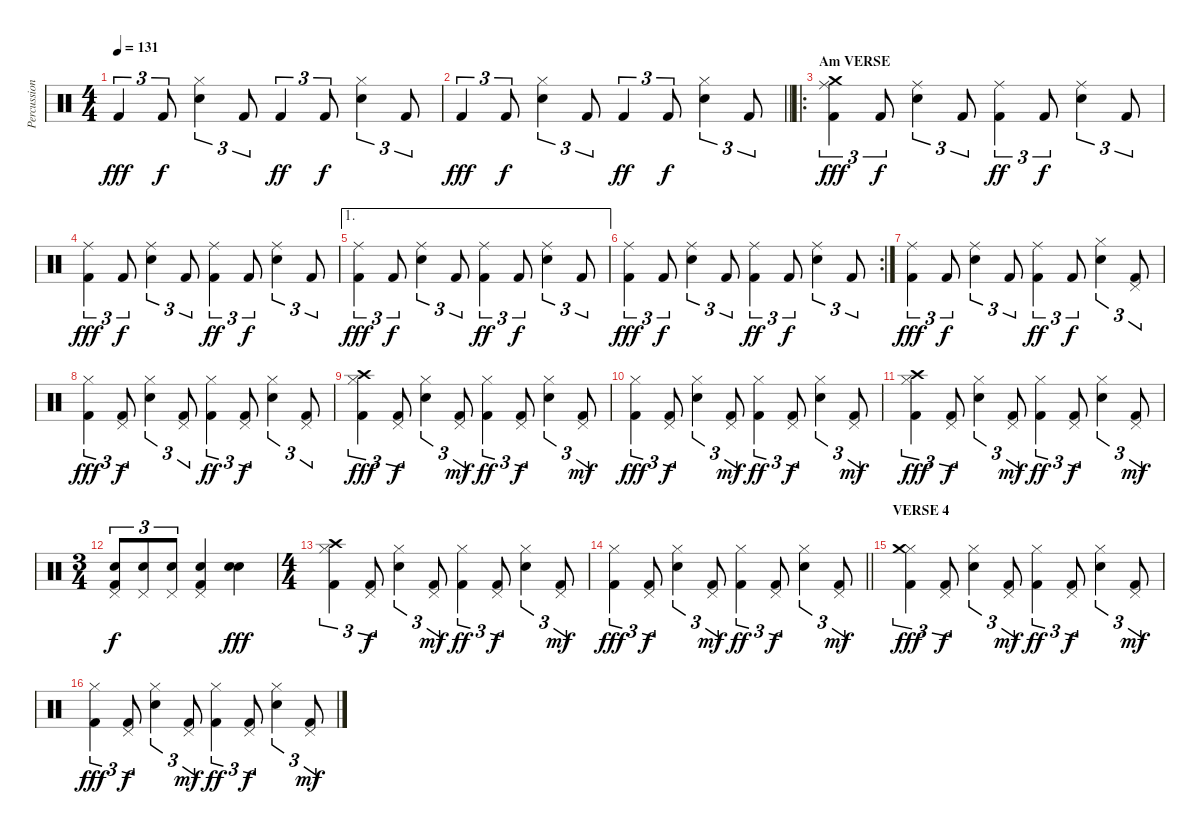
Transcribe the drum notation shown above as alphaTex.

\track ("Percussion" "Percussion") {instrument percussion}
\staff {score}
\articulation defaults
\ts (4 4)
\tempo 131
\clef neutral
\ks c "Kick (hit) 2".4{tu (3 2) dy fff} "Kick (hit) 2".8{tu (3 2) dy f}
("Hi-Hat (closed)" "Electric Snare (hit)").4{tu (3 2)} "Kick (hit) 2".8{tu (3 2)} "Kick (hit) 2".4{tu (3 2) dy ff} "Kick (hit) 2".8{tu (3 2) dy f} ("Hi-Hat (closed)" "Electric Snare (hit)").4{tu (3 2)} "Kick (hit) 2".8{tu (3 2)} |
\barLineRight lightlight "Kick (hit) 2".4{tu (3 2) dy fff} "Kick (hit) 2".8{tu (3 2) dy f}
("Hi-Hat (closed)" "Electric Snare (hit)").4{tu (3 2)} "Kick (hit) 2".8{tu (3 2)} "Kick (hit) 2".4{tu (3 2) dy ff} "Kick (hit) 2".8{tu (3 2) dy f} ("Hi-Hat (closed)" "Electric Snare (hit)").4{tu (3 2)} "Kick (hit) 2".8{tu (3 2)} |
\ro
\section ("" "Am VERSE")
("Ride (middle)" "Crash medium (hit)" "Kick (hit) 2").4{tu (3 2) dy fff} "Kick (hit) 2".8{tu (3 2) dy f} ("Ride (middle)" "Electric Snare (hit)").4{tu (3 2)} "Kick (hit) 2".8{tu (3 2)} ("Ride (middle)" "Kick (hit) 2").4{tu (3 2) dy ff} "Kick (hit) 2".8{tu (3 2) dy f} ("Ride (middle)" "Electric Snare (hit)").4{tu (3 2)} "Kick (hit) 2".8{tu (3 2)} |
("Ride (middle)" "Kick (hit) 2").4{tu (3 2) dy fff} "Kick (hit) 2".8{tu (3 2) dy f} ("Ride (middle)" "Electric Snare (hit)").4{tu (3 2)} "Kick (hit) 2".8{tu (3 2)} ("Ride (middle)" "Kick (hit) 2").4{tu (3 2) dy ff} "Kick (hit) 2".8{tu (3 2) dy f} ("Ride (middle)" "Electric Snare (hit)").4{tu (3 2)} "Kick (hit) 2".8{tu (3 2)} |
\ae 1
("Ride (middle)" "Kick (hit) 2").4{tu (3 2) dy fff} "Kick (hit) 2".8{tu (3 2) dy f} ("Ride (middle)" "Electric Snare (hit)").4{tu (3 2)} "Kick (hit) 2".8{tu (3 2)} ("Ride (middle)" "Kick (hit) 2").4{tu (3 2) dy ff} "Kick (hit) 2".8{tu (3 2) dy f} ("Ride (middle)" "Electric Snare (hit)").4{tu (3 2)} "Kick (hit) 2".8{tu (3 2)} |
\rc 2
("Ride (middle)" "Kick (hit) 2").4{tu (3 2) dy fff} "Kick (hit) 2".8{tu (3 2) dy f} ("Ride (middle)" "Electric Snare (hit)").4{tu (3 2)} "Kick (hit) 2".8{tu (3 2)} ("Ride (middle)" "Kick (hit) 2").4{tu (3 2) dy ff} "Kick (hit) 2".8{tu (3 2) dy f} ("Ride (middle)" "Electric Snare (hit)").4{tu (3 2)} "Kick (hit) 2".8{tu (3 2)} |
("Ride (middle)" "Kick (hit) 2").4{tu (3 2) dy fff} "Kick (hit) 2".8{tu (3 2) dy f} ("Ride (middle)" "Electric Snare (hit)").4{tu (3 2)} "Kick (hit) 2".8{tu (3 2)} ("Ride (middle)" "Kick (hit) 2").4{tu (3 2) dy ff} "Kick (hit) 2".8{tu (3 2) dy f} ("Hi-Hat (closed)" "Electric Snare (hit)").4{tu (3 2)} ("Pedal Hi-Hat (hit)" "Kick (hit) 2").8{tu (3 2)} |
("Hi-Hat (closed)" "Kick (hit) 2").4{tu (3 2) dy fff} ("Pedal Hi-Hat (hit)" "Kick (hit) 2").8{tu (3 2) dy f} ("Hi-Hat (closed)" "Electric Snare (hit)").4{tu (3 2)} ("Pedal Hi-Hat (hit)" "Kick (hit) 2").8{tu (3 2)} ("Hi-Hat (closed)" "Kick (hit) 2").4{tu (3 2) dy ff} ("Pedal Hi-Hat (hit)" "Kick (hit) 2").8{tu (3 2) dy f} ("Hi-Hat (closed)" "Electric Snare (hit)").4{tu (3 2)} ("Pedal Hi-Hat (hit)" "Kick (hit) 2").8{tu (3 2)} |
("Hi-Hat (closed)" "Crash high (hit)" "Kick (hit) 2").4{tu (3 2) dy fff} ("Pedal Hi-Hat (hit)" "Kick (hit) 2").8{tu (3 2) dy f} ("Hi-Hat (closed)" "Electric Snare (hit)").4{tu (3 2)} ("Pedal Hi-Hat (hit)" "Kick (hit) 2").8{tu (3 2) dy mf} ("Hi-Hat (closed)" "Kick (hit) 2").4{tu (3 2) dy ff} ("Pedal Hi-Hat (hit)" "Kick (hit) 2").8{tu (3 2) dy f} ("Hi-Hat (closed)" "Electric Snare (hit)").4{tu (3 2)} ("Pedal Hi-Hat (hit)" "Kick (hit) 2").8{tu (3 2) dy mf} |
("Hi-Hat (closed)" "Kick (hit) 2").4{tu (3 2) dy fff} ("Pedal Hi-Hat (hit)" "Kick (hit) 2").8{tu (3 2) dy f} ("Hi-Hat (closed)" "Electric Snare (hit)").4{tu (3 2)} ("Pedal Hi-Hat (hit)" "Kick (hit) 2").8{tu (3 2) dy mf} ("Hi-Hat (closed)" "Kick (hit) 2").4{tu (3 2) dy ff} ("Pedal Hi-Hat (hit)" "Kick (hit) 2").8{tu (3 2) dy f} ("Hi-Hat (closed)" "Electric Snare (hit)").4{tu (3 2)} ("Pedal Hi-Hat (hit)" "Kick (hit) 2").8{tu (3 2) dy mf} |
("Hi-Hat (closed)" "Crash high (hit)" "Kick (hit) 2").4{tu (3 2) dy fff} ("Pedal Hi-Hat (hit)" "Kick (hit) 2").8{tu (3 2) dy f} ("Hi-Hat (closed)" "Electric Snare (hit)").4{tu (3 2)} ("Pedal Hi-Hat (hit)" "Kick (hit) 2").8{tu (3 2) dy mf} ("Hi-Hat (closed)" "Kick (hit) 2").4{tu (3 2) dy ff} ("Pedal Hi-Hat (hit)" "Kick (hit) 2").8{tu (3 2) dy f} ("Hi-Hat (closed)" "Electric Snare (hit)").4{tu (3 2)} ("Pedal Hi-Hat (hit)" "Kick (hit) 2").8{tu (3 2) dy mf} |
\ts (3 4)
("Pedal Hi-Hat (hit)" "Electric Snare (hit)" "Kick (hit) 2").8{tu (3 2) dy f} ("Pedal Hi-Hat (hit)" "Electric Snare (hit)").8{tu (3 2)} ("Pedal Hi-Hat (hit)" "Electric Snare (hit)").8{tu (3 2)} ("Pedal Hi-Hat (hit)" "Electric Snare (hit)" "Kick (hit) 2").4 ("Electric Snare (hit)" "Snare (hit) 2").4{dy fff} |
\ts (4 4)
("Hi-Hat (closed)" "Crash high (hit)" "Kick (hit) 2").4{tu (3 2)} ("Pedal Hi-Hat (hit)" "Kick (hit) 2").8{tu (3 2) dy f} ("Hi-Hat (closed)" "Electric Snare (hit)").4{tu (3 2)} ("Pedal Hi-Hat (hit)" "Kick (hit) 2").8{tu (3 2) dy mf} ("Hi-Hat (closed)" "Kick (hit) 2").4{tu (3 2) dy ff} ("Pedal Hi-Hat (hit)" "Kick (hit) 2").8{tu (3 2) dy f} ("Hi-Hat (closed)" "Electric Snare (hit)").4{tu (3 2)} ("Pedal Hi-Hat (hit)" "Kick (hit) 2").8{tu (3 2) dy mf} |
\barLineRight lightlight
("Hi-Hat (closed)" "Kick (hit) 2").4{tu (3 2) dy fff} ("Pedal Hi-Hat (hit)" "Kick (hit) 2").8{tu (3 2) dy f} ("Hi-Hat (closed)" "Electric Snare (hit)").4{tu (3 2)} ("Pedal Hi-Hat (hit)" "Kick (hit) 2").8{tu (3 2) dy mf} ("Hi-Hat (closed)" "Kick (hit) 2").4{tu (3 2) dy ff} ("Pedal Hi-Hat (hit)" "Kick (hit) 2").8{tu (3 2) dy f} ("Hi-Hat (closed)" "Electric Snare (hit)").4{tu (3 2)} ("Pedal Hi-Hat (hit)" "Kick (hit) 2").8{tu (3 2) dy mf} |
\section ("" "VERSE 4")
("Hi-Hat (closed)" "Crash medium (hit)" "Kick (hit) 2").4{tu (3 2) dy fff} ("Pedal Hi-Hat (hit)" "Kick (hit) 2").8{tu (3 2) dy f} ("Hi-Hat (closed)" "Electric Snare (hit)").4{tu (3 2)} ("Pedal Hi-Hat (hit)" "Kick (hit) 2").8{tu (3 2) dy mf} ("Hi-Hat (closed)" "Kick (hit) 2").4{tu (3 2) dy ff} ("Pedal Hi-Hat (hit)" "Kick (hit) 2").8{tu (3 2) dy f} ("Hi-Hat (closed)" "Electric Snare (hit)").4{tu (3 2)} ("Pedal Hi-Hat (hit)" "Kick (hit) 2").8{tu (3 2) dy mf} |
("Hi-Hat (closed)" "Kick (hit) 2").4{tu (3 2) dy fff} ("Pedal Hi-Hat (hit)" "Kick (hit) 2").8{tu (3 2) dy f} ("Hi-Hat (closed)" "Electric Snare (hit)").4{tu (3 2)} ("Pedal Hi-Hat (hit)" "Kick (hit) 2").8{tu (3 2) dy mf} ("Hi-Hat (closed)" "Kick (hit) 2").4{tu (3 2) dy ff} ("Pedal Hi-Hat (hit)" "Kick (hit) 2").8{tu (3 2) dy f} ("Hi-Hat (closed)" "Electric Snare (hit)").4{tu (3 2)} ("Pedal Hi-Hat (hit)" "Kick (hit) 2").8{tu (3 2) dy mf}
